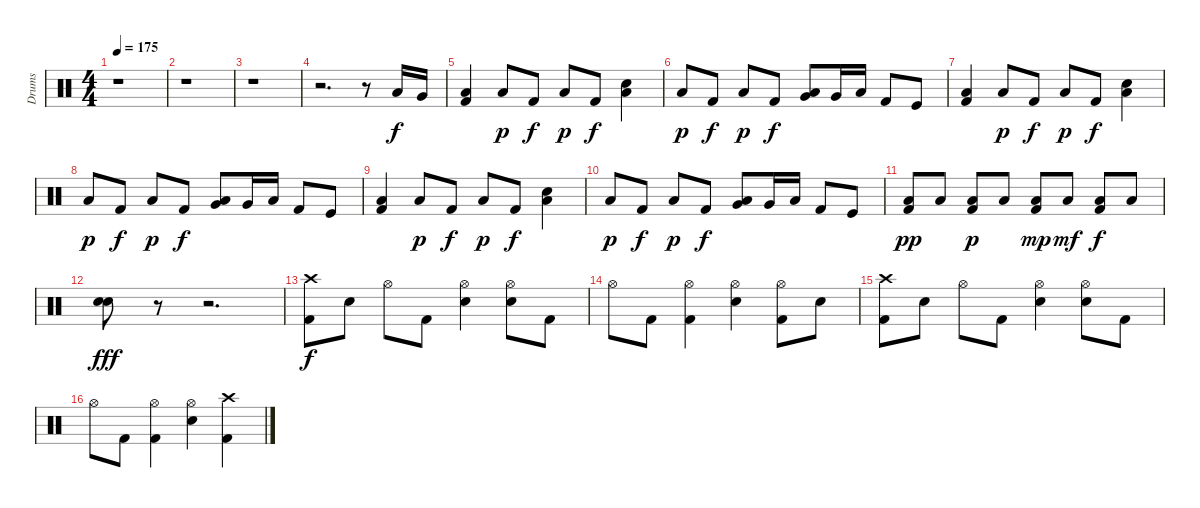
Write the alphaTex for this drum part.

\track ("Drums" "Drums") {instrument percussion}
\staff {score}
\articulation defaults
\ts (4 4)
\tempo 175
\clef neutral
\ks c
r.1{dy f} |
r.1 |
r.1 |
r.2{d} r.8 "Low Tom (hit)".16 "Very Low Tom (hit)".16 |
("Low Floor Tom (hit)" "Kick (hit) 2").4 "Low Floor Tom (hit)".8{dy p} "Kick (hit) 2".8{dy f} "Low Floor Tom (hit)".8{dy p} "Kick (hit) 2".8{dy f} ("Electric Snare (hit)" "Low Floor Tom (hit)").4 |
"Low Floor Tom (hit)".8{dy p} "Kick (hit) 2".8{dy f} "Low Floor Tom (hit)".8{dy p} "Kick (hit) 2".8{dy f} ("Low Floor Tom (hit)" "Very Low Tom (hit)").8 "Very Low Tom (hit)".16 "Low Floor Tom (hit)".16 "Kick (hit) 2".8 "Kick (hit)".8 |
("Low Floor Tom (hit)" "Kick (hit) 2").4 "Low Floor Tom (hit)".8{dy p} "Kick (hit) 2".8{dy f} "Low Floor Tom (hit)".8{dy p} "Kick (hit) 2".8{dy f} ("Electric Snare (hit)" "Low Floor Tom (hit)").4 |
"Low Floor Tom (hit)".8{dy p} "Kick (hit) 2".8{dy f} "Low Floor Tom (hit)".8{dy p} "Kick (hit) 2".8{dy f} ("Low Floor Tom (hit)" "Very Low Tom (hit)").8 "Very Low Tom (hit)".16 "Low Floor Tom (hit)".16 "Kick (hit) 2".8 "Kick (hit)".8 |
("Low Floor Tom (hit)" "Kick (hit) 2").4 "Low Floor Tom (hit)".8{dy p} "Kick (hit) 2".8{dy f} "Low Floor Tom (hit)".8{dy p} "Kick (hit) 2".8{dy f} ("Electric Snare (hit)" "Low Floor Tom (hit)").4 |
"Low Floor Tom (hit)".8{dy p} "Kick (hit) 2".8{dy f} "Low Floor Tom (hit)".8{dy p} "Kick (hit) 2".8{dy f} ("Low Floor Tom (hit)" "Very Low Tom (hit)").8 "Very Low Tom (hit)".16 "Low Floor Tom (hit)".16 "Kick (hit) 2".8 "Kick (hit)".8 |
("Low Floor Tom (hit)" "Kick (hit) 2").8{dy pp} "Low Floor Tom (hit)".8 ("Low Floor Tom (hit)" "Kick (hit) 2").8{dy p} "Low Floor Tom (hit)".8 ("Low Floor Tom (hit)" "Kick (hit) 2").8{dy mp} "Low Floor Tom (hit)".8{dy mf} ("Low Floor Tom (hit)" "Kick (hit) 2").8{dy f} "Low Floor Tom (hit)".8 |
("Electric Snare (hit)" "Electric Snare (hit)").8{bd 240 dy fff} r.8 r.2{d} |
("Crash high (hit)" "Kick (hit) 2").8{dy f} "Electric Snare (hit)".8 "Hi-Hat (open)".8 "Kick (hit) 2".8 ("Hi-Hat (open)" "Electric Snare (hit)").4 ("Hi-Hat (open)" "Electric Snare (hit)").8 "Kick (hit) 2".8 |
"Hi-Hat (open)".8 "Kick (hit) 2".8 ("Hi-Hat (open)" "Kick (hit) 2").4 ("Hi-Hat (open)" "Electric Snare (hit)").4 ("Hi-Hat (open)" "Kick (hit) 2").8 "Electric Snare (hit)".8 |
("Crash high (hit)" "Kick (hit) 2").8 "Electric Snare (hit)".8 "Hi-Hat (open)".8 "Kick (hit) 2".8 ("Hi-Hat (open)" "Electric Snare (hit)").4 ("Hi-Hat (open)" "Electric Snare (hit)").8 "Kick (hit) 2".8 |
"Hi-Hat (open)".8 "Kick (hit) 2".8 ("Hi-Hat (open)" "Kick (hit) 2").4 ("Hi-Hat (open)" "Electric Snare (hit)").4 ("Crash high (hit)" "Kick (hit) 2").4
